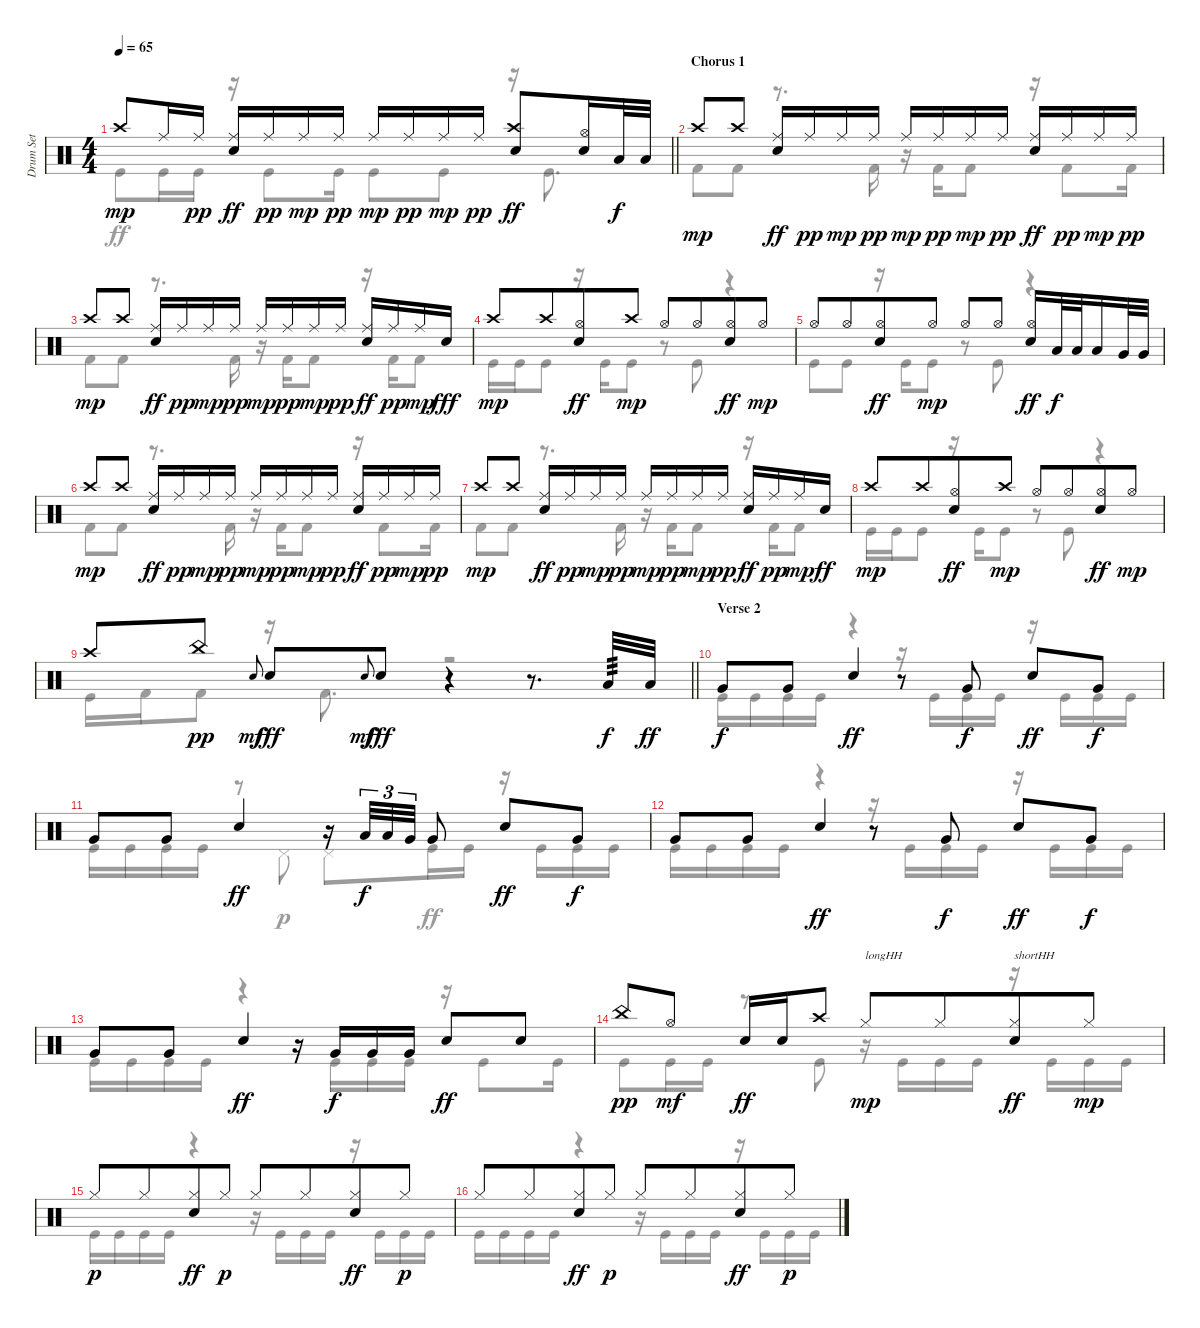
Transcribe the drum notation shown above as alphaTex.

\track ("Drum Set" "Drum Set") {instrument percussion}
\staff {score}
\articulation defaults
\voice
\ts (4 4)
\tempo 65
\clef neutral
\barLineRight lightlight
\ks c "Crash high (hit)".8{dy mp} "Ride (middle)".16 "Ride (middle)".16{dy pp}
("Ride (middle)" "Electric Snare (hit)").16{dy ff} "Ride (middle)".16{dy pp} "Ride (middle)".16{dy mp} "Ride (middle)".16{dy pp} "Ride (middle)".16{dy mp} "Ride (middle)".16{dy pp} "Ride (middle)".16{dy mp} "Ride (middle)".16{dy pp} ("Crash high (hit)" "Electric Snare (hit)").8{dy ff} ("Hi-Hat (open)" "Electric Snare (hit)").16 "Low Tom (hit)".32{dy f} "Low Tom (hit)".32 |
\section ("" "Chorus 1")
"Crash high (hit)".8{dy mp} "Crash high (hit)".8 ("Ride (middle)" "Electric Snare (hit)").16{dy ff} "Ride (middle)".16{dy pp} "Ride (middle)".16{dy mp} "Ride (middle)".16{dy pp} "Ride (middle)".16{dy mp} "Ride (middle)".16{dy pp} "Ride (middle)".16{dy mp} "Ride (middle)".16{dy pp} ("Ride (middle)" "Electric Snare (hit)").16{dy ff} "Ride (middle)".16{dy pp} "Ride (middle)".16{dy mp} "Ride (middle)".16{dy pp} |
"Crash high (hit)".8{dy mp} "Crash high (hit)".8 ("Ride (middle)" "Electric Snare (hit)").16{dy ff} "Ride (middle)".16{dy pp} "Ride (middle)".16{dy mp} "Ride (middle)".16{dy pp} "Ride (middle)".16{dy mp} "Ride (middle)".16{dy pp} "Ride (middle)".16{dy mp} "Ride (middle)".16{dy pp} ("Ride (middle)" "Electric Snare (hit)").16{dy ff} "Ride (middle)".16{dy pp} "Ride (middle)".16{dy mp} "Electric Snare (hit)".16{dy fff} |
"Crash high (hit)".8{dy mp} "Crash high (hit)".8{beam merge} ("Hi-Hat (open)" "Electric Snare (hit)").8{dy ff} "Crash high (hit)".8{dy mp} "Hi-Hat (open)".8 "Hi-Hat (open)".8{beam merge} ("Hi-Hat (open)" "Electric Snare (hit)").8{dy ff} "Hi-Hat (open)".8{dy mp} |
"Hi-Hat (open)".8 "Hi-Hat (open)".8{beam merge} ("Hi-Hat (open)" "Electric Snare (hit)").8{dy ff} "Hi-Hat (open)".8{dy mp} "Hi-Hat (open)".8 "Hi-Hat (open)".8 ("Hi-Hat (open)" "Electric Snare (hit)").16{dy ff} "Low Tom (hit)".32{dy f} "Low Tom (hit)".32{beam splitsecondary} "Low Tom (hit)".16 "Very Low Tom (hit)".32 "Very Low Tom (hit)".32 |
"Crash high (hit)".8{dy mp} "Crash high (hit)".8 ("Ride (middle)" "Electric Snare (hit)").16{dy ff} "Ride (middle)".16{dy pp} "Ride (middle)".16{dy mp} "Ride (middle)".16{dy pp} "Ride (middle)".16{dy mp} "Ride (middle)".16{dy pp} "Ride (middle)".16{dy mp} "Ride (middle)".16{dy pp} ("Ride (middle)" "Electric Snare (hit)").16{dy ff} "Ride (middle)".16{dy pp} "Ride (middle)".16{dy mp} "Ride (middle)".16{dy pp} |
"Crash high (hit)".8{dy mp} "Crash high (hit)".8 ("Ride (middle)" "Electric Snare (hit)").16{dy ff} "Ride (middle)".16{dy pp} "Ride (middle)".16{dy mp} "Ride (middle)".16{dy pp} "Ride (middle)".16{dy mp} "Ride (middle)".16{dy pp} "Ride (middle)".16{dy mp} "Ride (middle)".16{dy pp} ("Ride (middle)" "Electric Snare (hit)").16{dy ff} "Ride (middle)".16{dy pp} "Ride (middle)".16{dy mp} "Electric Snare (hit)".16{dy ff} |
"Crash high (hit)".8{dy mp} "Crash high (hit)".8{beam merge} ("Hi-Hat (open)" "Electric Snare (hit)").8{dy ff} "Crash high (hit)".8{dy mp} "Hi-Hat (open)".8 "Hi-Hat (open)".8{beam merge} ("Hi-Hat (open)" "Electric Snare (hit)").8{dy ff} "Hi-Hat (open)".8{dy mp} |
\barLineRight lightlight "Crash high (hit)".8 "China (hit)".8{dy pp} "Electric Snare (hit)".8{gr onbeat dy mf} "Electric Snare (hit)".8{dy fff} "Electric Snare (hit)".8{gr onbeat dy mf} "Electric Snare (hit)".8{dy fff}
r.4 r.8{d} "Low Tom (hit)".32{tp 3 dy f} "Low Tom (hit)".32{dy ff} |
\section ("" "Verse 2")
"Very Low Tom (hit)".8{dy f} "Very Low Tom (hit)".8 "Electric Snare (hit)".4{dy ff} r.8 "Very Low Tom (hit)".8{dy f} "Electric Snare (hit)".8{dy ff} "Very Low Tom (hit)".8{dy f} |
"Very Low Tom (hit)".8 "Very Low Tom (hit)".8 "Electric Snare (hit)".4{dy ff} r.16 "Low Tom (hit)".32{tu (3 2) dy f} "Low Tom (hit)".32{tu (3 2)} "Very Low Tom (hit)".32{tu (3 2)} "Very Low Tom (hit)".8 "Electric Snare (hit)".8{dy ff} "Very Low Tom (hit)".8{dy f} |
"Very Low Tom (hit)".8 "Very Low Tom (hit)".8 "Electric Snare (hit)".4{dy ff} r.8 "Very Low Tom (hit)".8{dy f} "Electric Snare (hit)".8{dy ff} "Very Low Tom (hit)".8{dy f} |
"Very Low Tom (hit)".8 "Very Low Tom (hit)".8 "Electric Snare (hit)".4{dy ff} r.16 "Very Low Tom (hit)".16{dy f} "Very Low Tom (hit)".16 "Very Low Tom (hit)".16 "Electric Snare (hit)".8{dy ff} "Electric Snare (hit)".8 |
"China (hit)".8{dy pp} "Hi-Hat (open)".8{dy mf} "Electric Snare (hit)".16{dy ff} "Electric Snare (hit)".16 "Crash high (hit)".8 "Hi-Hat (closed)".8{txt "longHH" dy mp} "Hi-Hat (closed)".8{beam merge} ("Hi-Hat (closed)" "Electric Snare (hit)").8{txt "shortHH" dy ff} "Hi-Hat (closed)".8{dy mp} |
"Hi-Hat (closed)".8{dy p} "Hi-Hat (closed)".8{beam merge} ("Hi-Hat (closed)" "Electric Snare (hit)").8{dy ff} "Hi-Hat (closed)".8{dy p} "Hi-Hat (closed)".8 "Hi-Hat (closed)".8{beam merge} ("Hi-Hat (closed)" "Electric Snare (hit)").8{dy ff} "Hi-Hat (closed)".8{dy p} |
"Hi-Hat (closed)".8 "Hi-Hat (closed)".8{beam merge} ("Hi-Hat (closed)" "Electric Snare (hit)").8{dy ff} "Hi-Hat (closed)".8{dy p} "Hi-Hat (closed)".8 "Hi-Hat (closed)".8{beam merge} ("Hi-Hat (closed)" "Electric Snare (hit)").8{dy ff} "Hi-Hat (closed)".8{dy p}
\voice
\clef neutral
\ottava regular
\simile none
\barLineRight lightlight
\ks c "Kick (hit)".8{dy ff} "Kick (hit)".16 "Kick (hit)".16
r.16 "Kick (hit)".8 "Kick (hit)".16 "Kick (hit)".8 "Kick (hit)".8 r.16 "Kick (hit)".8{d} |
"Kick (hit) 2".8 "Kick (hit) 2".8 r.8{d} "Kick (hit) 2".16 r.16 "Kick (hit) 2".16 "Kick (hit) 2".8 r.16 "Kick (hit) 2".8 "Kick (hit) 2".16 |
"Kick (hit) 2".8 "Kick (hit) 2".8 r.8{d} "Kick (hit) 2".16 r.16 "Kick (hit) 2".16 "Kick (hit) 2".8 r.16 "Kick (hit) 2".16 "Kick (hit) 2".8 |
"Kick (hit)".16 "Kick (hit)".16 "Kick (hit)".8 r.16 "Kick (hit)".16 "Kick (hit)".8 r.8 "Kick (hit)".8 r.4 |
"Kick (hit)".8 "Kick (hit)".8 r.16 "Kick (hit)".16 "Kick (hit)".8 r.8 "Kick (hit)".8 r.4 |
"Kick (hit) 2".8 "Kick (hit) 2".8 r.8{d} "Kick (hit) 2".16 r.16 "Kick (hit) 2".16 "Kick (hit) 2".8 r.16 "Kick (hit) 2".8 "Kick (hit) 2".16 |
"Kick (hit) 2".8 "Kick (hit) 2".8 r.8{d} "Kick (hit) 2".16 r.16 "Kick (hit) 2".16 "Kick (hit) 2".8 r.16 "Kick (hit) 2".16 "Kick (hit) 2".8 |
"Kick (hit)".16 "Kick (hit)".16 "Kick (hit)".8 r.16 "Kick (hit)".16 "Kick (hit)".8 r.8 "Kick (hit)".8 r.4 |
\barLineRight lightlight "Kick (hit)".16 "Kick (hit) 2".16 "Kick (hit) 2".8
r.16 "Kick (hit) 2".8{d} r.2 |
"Kick (hit)".16 "Kick (hit)".16 "Kick (hit)".16 "Kick (hit)".16 r.4 r.16 "Kick (hit)".16 "Kick (hit)".16 "Kick (hit)".16 r.16 "Kick (hit)".16 "Kick (hit)".16 "Kick (hit)".16 |
"Kick (hit)".16 "Kick (hit)".16 "Kick (hit)".16 "Kick (hit)".16 r.8 "Pedal Hi-Hat (hit)".8{dy p} "Pedal Hi-Hat (hit)".8 "Kick (hit)".16{dy ff} "Kick (hit)".16 r.16 "Kick (hit)".16 "Kick (hit)".16 "Kick (hit)".16 |
"Kick (hit)".16 "Kick (hit)".16 "Kick (hit)".16 "Kick (hit)".16 r.4 r.16 "Kick (hit)".16 "Kick (hit)".16 "Kick (hit)".16 r.16 "Kick (hit)".16 "Kick (hit)".16 "Kick (hit)".16 |
"Kick (hit)".16 "Kick (hit)".16 "Kick (hit)".16 "Kick (hit)".16 r.4 r.16 "Kick (hit)".16 "Kick (hit)".16 "Kick (hit)".16 r.16 "Kick (hit)".8 "Kick (hit)".16 |
"Kick (hit)".8 "Kick (hit)".16 "Kick (hit)".16 r.8 "Kick (hit)".8 r.16 "Kick (hit)".16 "Kick (hit)".16 "Kick (hit)".16 r.16 "Kick (hit)".16 "Kick (hit)".16 "Kick (hit)".16 |
"Kick (hit)".16 "Kick (hit)".16 "Kick (hit)".16 "Kick (hit)".16 r.4 r.16 "Kick (hit)".16 "Kick (hit)".16 "Kick (hit)".16 r.16 "Kick (hit)".16 "Kick (hit)".16 "Kick (hit)".16 |
"Kick (hit)".16 "Kick (hit)".16 "Kick (hit)".16 "Kick (hit)".16 r.4 r.16 "Kick (hit)".16 "Kick (hit)".16 "Kick (hit)".16 r.16 "Kick (hit)".16 "Kick (hit)".16 "Kick (hit)".16
